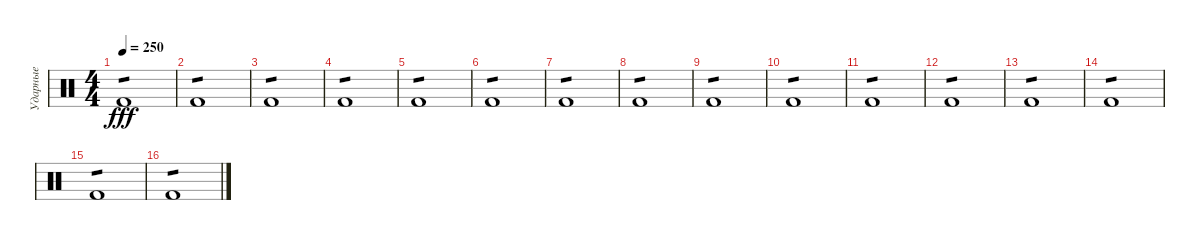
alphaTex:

\track ("Ударные" "Ударные") {instrument percussion}
\staff {score}
\articulation defaults
\ts (4 4)
\tempo 250
\clef neutral
\ks c "Kick (hit) 2".1{tp 1 dy fff}
|
"Kick (hit) 2".1{tp 1} |
"Kick (hit) 2".1{tp 1} |
"Kick (hit) 2".1{tp 1} |
"Kick (hit) 2".1{tp 1} |
"Kick (hit) 2".1{tp 1} |
"Kick (hit) 2".1{tp 1} |
"Kick (hit) 2".1{tp 1} |
"Kick (hit) 2".1{tp 1} |
"Kick (hit) 2".1{tp 1} |
"Kick (hit) 2".1{tp 1} |
"Kick (hit) 2".1{tp 1} |
"Kick (hit) 2".1{tp 1} |
"Kick (hit) 2".1{tp 1} |
"Kick (hit) 2".1{tp 1} |
"Kick (hit) 2".1{tp 1}
